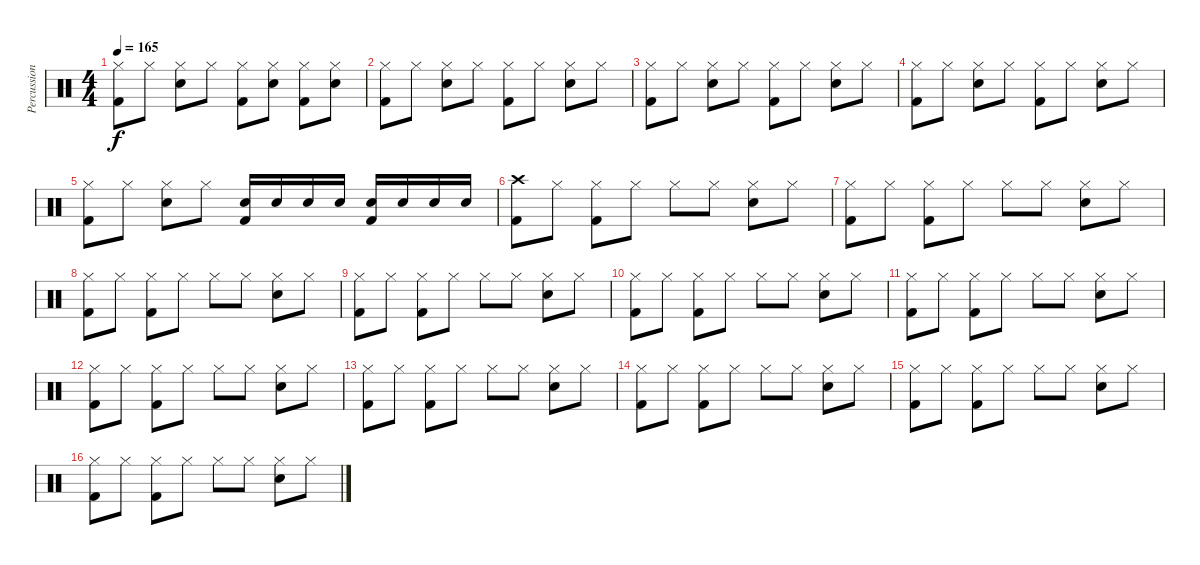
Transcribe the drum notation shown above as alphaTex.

\track ("Percussion" "Percussion") {instrument percussion}
\staff {score}
\articulation defaults
\ts (4 4)
\tempo 165
\clef neutral
\ks c
("Hi-Hat (closed)" "Kick (hit) 2").8{dy f} "Hi-Hat (closed)".8 ("Hi-Hat (closed)" "Snare (hit) 2").8 "Hi-Hat (closed)".8 ("Hi-Hat (closed)" "Kick (hit) 2").8 ("Hi-Hat (closed)" "Snare (hit) 2").8 ("Hi-Hat (closed)" "Kick (hit) 2").8 ("Hi-Hat (closed)" "Snare (hit) 2").8 |
("Hi-Hat (closed)" "Kick (hit) 2").8 "Hi-Hat (closed)".8 ("Hi-Hat (closed)" "Snare (hit) 2").8 "Hi-Hat (closed)".8 ("Hi-Hat (closed)" "Kick (hit) 2").8 "Hi-Hat (closed)".8 ("Hi-Hat (closed)" "Snare (hit) 2").8 "Hi-Hat (closed)".8 |
("Hi-Hat (closed)" "Kick (hit) 2").8 "Hi-Hat (closed)".8 ("Hi-Hat (closed)" "Snare (hit) 2").8 "Hi-Hat (closed)".8 ("Hi-Hat (closed)" "Kick (hit) 2").8 "Hi-Hat (closed)".8 ("Hi-Hat (closed)" "Snare (hit) 2").8 "Hi-Hat (closed)".8 |
("Hi-Hat (closed)" "Kick (hit) 2").8 "Hi-Hat (closed)".8 ("Hi-Hat (closed)" "Snare (hit) 2").8 "Hi-Hat (closed)".8 ("Hi-Hat (closed)" "Kick (hit) 2").8 "Hi-Hat (closed)".8 ("Hi-Hat (closed)" "Snare (hit) 2").8 "Hi-Hat (closed)".8 |
("Hi-Hat (closed)" "Kick (hit) 2").8 "Hi-Hat (closed)".8 ("Hi-Hat (closed)" "Snare (hit) 2").8 "Hi-Hat (closed)".8 ("Snare (hit) 2" "Kick (hit) 2").16 "Snare (hit) 2".16 "Snare (hit) 2".16 "Snare (hit) 2".16 ("Snare (hit) 2" "Kick (hit) 2").16 "Snare (hit) 2".16 "Snare (hit) 2".16 "Snare (hit) 2".16 |
("Crash high (hit)" "Kick (hit) 2").8 "Hi-Hat (closed)".8 ("Hi-Hat (closed)" "Kick (hit) 2").8 "Hi-Hat (closed)".8 "Hi-Hat (closed)".8 "Hi-Hat (closed)".8 ("Hi-Hat (closed)" "Snare (hit) 2").8 "Hi-Hat (closed)".8 |
("Hi-Hat (closed)" "Kick (hit) 2").8 "Hi-Hat (closed)".8 ("Hi-Hat (closed)" "Kick (hit) 2").8 "Hi-Hat (closed)".8 "Hi-Hat (closed)".8 "Hi-Hat (closed)".8 ("Hi-Hat (closed)" "Snare (hit) 2").8 "Hi-Hat (closed)".8 |
("Hi-Hat (closed)" "Kick (hit) 2").8 "Hi-Hat (closed)".8 ("Hi-Hat (closed)" "Kick (hit) 2").8 "Hi-Hat (closed)".8 "Hi-Hat (closed)".8 "Hi-Hat (closed)".8 ("Hi-Hat (closed)" "Snare (hit) 2").8 "Hi-Hat (closed)".8 |
("Hi-Hat (closed)" "Kick (hit) 2").8 "Hi-Hat (closed)".8 ("Hi-Hat (closed)" "Kick (hit) 2").8 "Hi-Hat (closed)".8 "Hi-Hat (closed)".8 "Hi-Hat (closed)".8 ("Hi-Hat (closed)" "Snare (hit) 2").8 "Hi-Hat (closed)".8 |
("Hi-Hat (closed)" "Kick (hit) 2").8 "Hi-Hat (closed)".8 ("Hi-Hat (closed)" "Kick (hit) 2").8 "Hi-Hat (closed)".8 "Hi-Hat (closed)".8 "Hi-Hat (closed)".8 ("Hi-Hat (closed)" "Snare (hit) 2").8 "Hi-Hat (closed)".8 |
("Hi-Hat (closed)" "Kick (hit) 2").8 "Hi-Hat (closed)".8 ("Hi-Hat (closed)" "Kick (hit) 2").8 "Hi-Hat (closed)".8 "Hi-Hat (closed)".8 "Hi-Hat (closed)".8 ("Hi-Hat (closed)" "Snare (hit) 2").8 "Hi-Hat (closed)".8 |
("Hi-Hat (closed)" "Kick (hit) 2").8 "Hi-Hat (closed)".8 ("Hi-Hat (closed)" "Kick (hit) 2").8 "Hi-Hat (closed)".8 "Hi-Hat (closed)".8 "Hi-Hat (closed)".8 ("Hi-Hat (closed)" "Snare (hit) 2").8 "Hi-Hat (closed)".8 |
("Hi-Hat (closed)" "Kick (hit) 2").8 "Hi-Hat (closed)".8 ("Hi-Hat (closed)" "Kick (hit) 2").8 "Hi-Hat (closed)".8 "Hi-Hat (closed)".8 "Hi-Hat (closed)".8 ("Hi-Hat (closed)" "Snare (hit) 2").8 "Hi-Hat (closed)".8 |
("Hi-Hat (closed)" "Kick (hit) 2").8 "Hi-Hat (closed)".8 ("Hi-Hat (closed)" "Kick (hit) 2").8 "Hi-Hat (closed)".8 "Hi-Hat (closed)".8 "Hi-Hat (closed)".8 ("Hi-Hat (closed)" "Snare (hit) 2").8 "Hi-Hat (closed)".8 |
("Hi-Hat (closed)" "Kick (hit) 2").8 "Hi-Hat (closed)".8 ("Hi-Hat (closed)" "Kick (hit) 2").8 "Hi-Hat (closed)".8 "Hi-Hat (closed)".8 "Hi-Hat (closed)".8 ("Hi-Hat (closed)" "Snare (hit) 2").8 "Hi-Hat (closed)".8 |
("Hi-Hat (closed)" "Kick (hit) 2").8 "Hi-Hat (closed)".8 ("Hi-Hat (closed)" "Kick (hit) 2").8 "Hi-Hat (closed)".8 "Hi-Hat (closed)".8 "Hi-Hat (closed)".8 ("Hi-Hat (closed)" "Snare (hit) 2").8 "Hi-Hat (closed)".8
